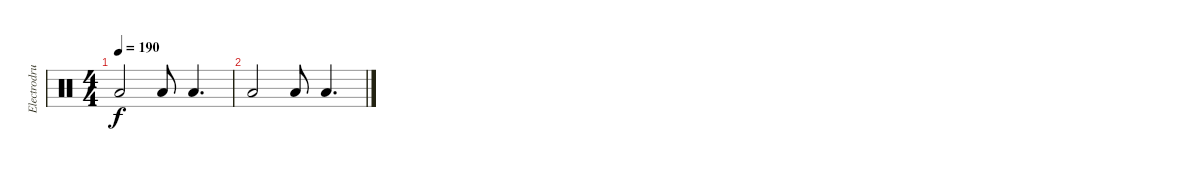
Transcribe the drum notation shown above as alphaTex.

\track ("Electrodrums3" "Electrodru") {instrument percussion}
\staff {score}
\articulation defaults
\ts (4 4)
\tempo 190
\clef neutral
\ks c "Low Floor Tom (hit)".2{dy f} "Low Floor Tom (hit)".8 "Low Floor Tom (hit)".4{d}
|
"Low Floor Tom (hit)".2 "Low Floor Tom (hit)".8 "Low Floor Tom (hit)".4{d}
